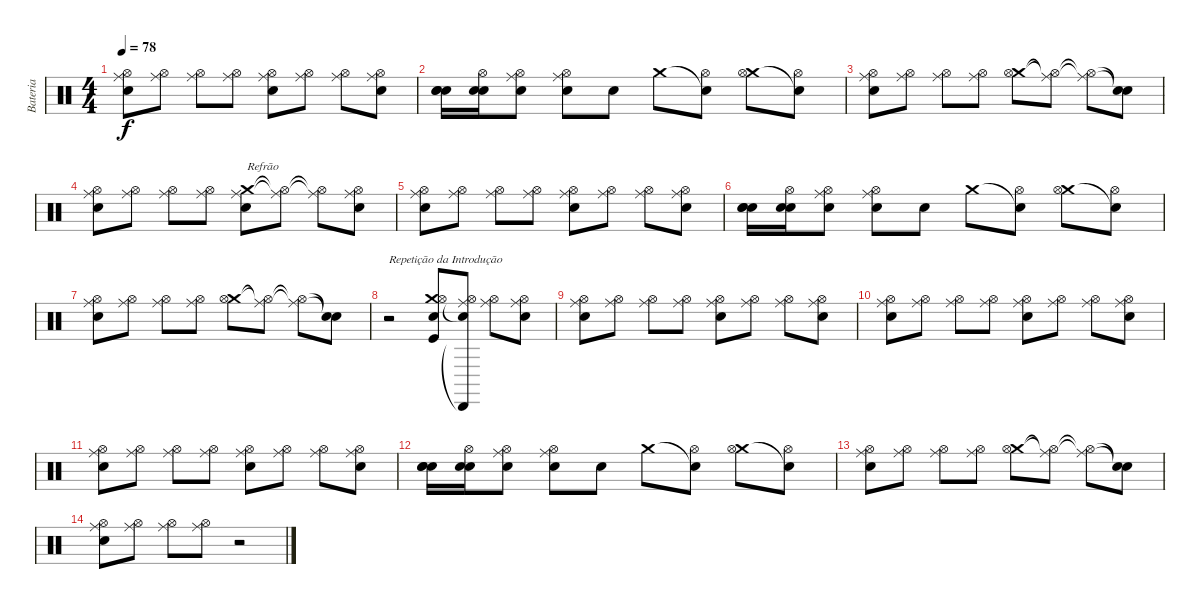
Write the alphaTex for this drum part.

\track ("Bateria" "Bateria") {instrument percussion}
\staff {score}
\articulation defaults
\ts (4 4)
\tempo 78
\clef neutral
\ks c
("Hi-Hat (open)" "Ride (middle)" "Snare (hit) 2").8{dy f} ("Hi-Hat (open)" "Ride (middle)").8 ("Hi-Hat (open)" "Ride (middle)").8 ("Hi-Hat (open)" "Ride (middle)").8 ("Hi-Hat (open)" "Ride (middle)" "Snare (hit) 2").8 ("Hi-Hat (open)" "Ride (middle)").8 ("Hi-Hat (open)" "Ride (middle)").8 ("Hi-Hat (open)" "Ride (middle)" "Snare (hit) 2").8 |
("Electric Snare (hit)" "Electric Snare (hit)" "Electric Snare (hit)").16 ("Hi-Hat (open)" "Snare (hit) 2" "Electric Snare (hit)").16 ("Hi-Hat (open)" "Ride (middle)" "Electric Snare (hit)").8 ("Hi-Hat (open)" "Ride (middle)" "Snare (hit) 2").8 "Electric Snare (hit)".8 "Crash medium (hit)".8 ("Snare (hit)"{t} "Hi-Hat (open)").8 ("Crash medium (hit)" "Hi-Hat (open)").8 ("Snare (hit)"{t} "Hi-Hat (open)").8 |
("Hi-Hat (open)" "Ride (middle)" "Snare (hit) 2").8 ("Hi-Hat (open)" "Ride (middle)").8 ("Hi-Hat (open)" "Ride (middle)").8 ("Hi-Hat (open)" "Ride (middle)").8 ("Crash medium (hit)" "Hi-Hat (open)").8 ("Hi-Hat (open)"{t} "Ride (middle)"{t}).8 ("Hi-Hat (open)"{t} "Ride (middle)"{t}).8 ("Snare (hit)"{t} "Snare (hit)"{t}).8 |
("Hi-Hat (open)" "Ride (middle)" "Snare (hit) 2").8 ("Hi-Hat (open)" "Ride (middle)").8 ("Hi-Hat (open)" "Ride (middle)").8 ("Hi-Hat (open)" "Ride (middle)").8 ("Crash medium (hit)" "Ride (middle)" "Snare (hit) 2").8{txt "Refrão"} ("Hi-Hat (open)"{t} "Ride (middle)"{t}).8 ("Hi-Hat (open)"{t} "Ride (middle)"{t}).8 ("Hi-Hat (open)" "Ride (middle)" "Snare (hit) 2").8 |
("Hi-Hat (open)" "Ride (middle)" "Snare (hit) 2").8 ("Hi-Hat (open)" "Ride (middle)").8 ("Hi-Hat (open)" "Ride (middle)").8 ("Hi-Hat (open)" "Ride (middle)").8 ("Hi-Hat (open)" "Ride (middle)" "Snare (hit) 2").8 ("Hi-Hat (open)" "Ride (middle)").8 ("Hi-Hat (open)" "Ride (middle)").8 ("Hi-Hat (open)" "Ride (middle)" "Snare (hit) 2").8 |
("Electric Snare (hit)" "Electric Snare (hit)" "Electric Snare (hit)").16 ("Hi-Hat (open)" "Snare (hit) 2" "Electric Snare (hit)").16 ("Hi-Hat (open)" "Ride (middle)" "Electric Snare (hit)").8 ("Hi-Hat (open)" "Ride (middle)" "Snare (hit) 2").8 "Electric Snare (hit)".8 "Crash medium (hit)".8 ("Snare (hit)"{t} "Hi-Hat (open)").8 ("Crash medium (hit)" "Hi-Hat (open)").8 ("Snare (hit)"{t} "Hi-Hat (open)").8 |
("Hi-Hat (open)" "Ride (middle)" "Snare (hit) 2").8 ("Hi-Hat (open)" "Ride (middle)").8 ("Hi-Hat (open)" "Ride (middle)").8 ("Hi-Hat (open)" "Ride (middle)").8 ("Crash medium (hit)" "Hi-Hat (open)").8 ("Hi-Hat (open)"{t} "Ride (middle)"{t}).8 ("Hi-Hat (open)"{t} "Ride (middle)"{t}).8 ("Snare (hit)"{t} "Snare (hit)"{t}).8 |
r.2{txt "Repetição da Introdução"} ("Kick (hit)" "Crash medium (hit)" "Snare (hit) 2" "Hi-Hat (open)").8 ("Cabasa (hit)"{t} "Snare (hit) 2"{t} "Hi-Hat (open)" "Ride (middle)").8 ("Hi-Hat (open)" "Ride (middle)").8 ("Hi-Hat (open)" "Ride (middle)" "Snare (hit) 2").8 |
("Hi-Hat (open)" "Ride (middle)" "Snare (hit) 2").8 ("Hi-Hat (open)" "Ride (middle)").8 ("Hi-Hat (open)" "Ride (middle)").8 ("Hi-Hat (open)" "Ride (middle)").8 ("Hi-Hat (open)" "Ride (middle)" "Snare (hit) 2").8 ("Hi-Hat (open)" "Ride (middle)").8 ("Hi-Hat (open)" "Ride (middle)").8 ("Hi-Hat (open)" "Ride (middle)" "Snare (hit) 2").8 |
("Hi-Hat (open)" "Ride (middle)" "Snare (hit) 2").8{volume 0} ("Hi-Hat (open)" "Ride (middle)").8 ("Hi-Hat (open)" "Ride (middle)").8 ("Hi-Hat (open)" "Ride (middle)").8 ("Hi-Hat (open)" "Ride (middle)" "Snare (hit) 2").8 ("Hi-Hat (open)" "Ride (middle)").8 ("Hi-Hat (open)" "Ride (middle)").8 ("Hi-Hat (open)" "Ride (middle)" "Snare (hit) 2").8 |
("Hi-Hat (open)" "Ride (middle)" "Snare (hit) 2").8 ("Hi-Hat (open)" "Ride (middle)").8 ("Hi-Hat (open)" "Ride (middle)").8 ("Hi-Hat (open)" "Ride (middle)").8 ("Hi-Hat (open)" "Ride (middle)" "Snare (hit) 2").8 ("Hi-Hat (open)" "Ride (middle)").8 ("Hi-Hat (open)" "Ride (middle)").8 ("Hi-Hat (open)" "Ride (middle)" "Snare (hit) 2").8 |
("Electric Snare (hit)" "Electric Snare (hit)" "Electric Snare (hit)").16 ("Hi-Hat (open)" "Snare (hit) 2" "Electric Snare (hit)").16 ("Hi-Hat (open)" "Ride (middle)" "Electric Snare (hit)").8 ("Hi-Hat (open)" "Ride (middle)" "Snare (hit) 2").8 "Electric Snare (hit)".8 "Crash medium (hit)".8 ("Snare (hit)"{t} "Hi-Hat (open)").8 ("Crash medium (hit)" "Hi-Hat (open)").8 ("Snare (hit)"{t} "Hi-Hat (open)").8 |
("Hi-Hat (open)" "Ride (middle)" "Snare (hit) 2").8 ("Hi-Hat (open)" "Ride (middle)").8 ("Hi-Hat (open)" "Ride (middle)").8 ("Hi-Hat (open)" "Ride (middle)").8 ("Crash medium (hit)" "Hi-Hat (open)").8 ("Hi-Hat (open)"{t} "Ride (middle)"{t}).8 ("Hi-Hat (open)"{t} "Ride (middle)"{t}).8 ("Snare (hit)"{t} "Snare (hit)"{t}).8 |
("Hi-Hat (open)" "Ride (middle)" "Snare (hit) 2").8 ("Hi-Hat (open)" "Ride (middle)").8 ("Hi-Hat (open)" "Ride (middle)").8 ("Hi-Hat (open)" "Ride (middle)").8 r.2
